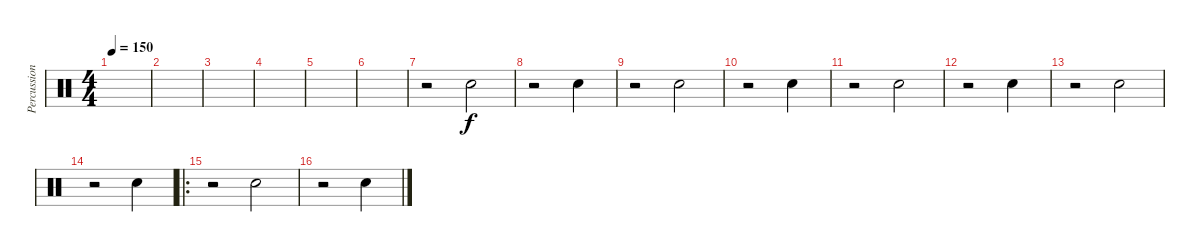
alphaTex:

\track ("Percussions" "Percussion") {instrument percussion}
\staff {score}
\articulation defaults
\ts (4 4)
\tempo 150
\clef neutral
\ks c
|
|
|
|
|
|
r.2 "Electric Snare (hit)".2 |
r.2 "Electric Snare (hit)".4 |
r.2 "Electric Snare (hit)".2 |
r.2 "Electric Snare (hit)".4 |
r.2 "Electric Snare (hit)".2 |
r.2 "Electric Snare (hit)".4 |
r.2 "Electric Snare (hit)".2 |
r.2 "Electric Snare (hit)".4 |
\ro
r.2 "Electric Snare (hit)".2 |
r.2 "Electric Snare (hit)".4
